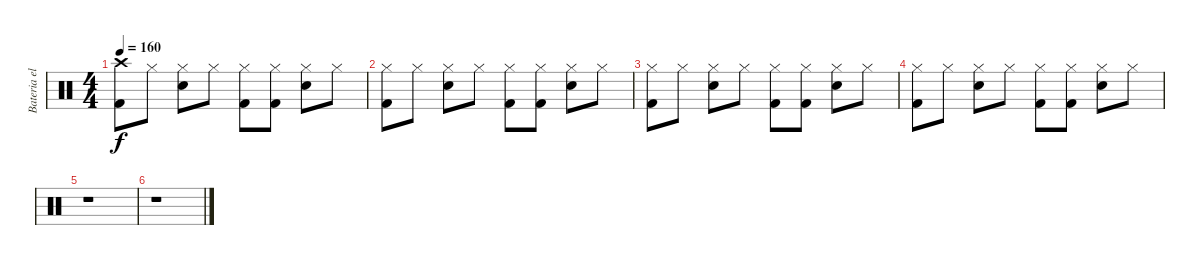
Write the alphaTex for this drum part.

\track ("Bateria electrica" "Bateria el") {instrument percussion}
\staff {score}
\articulation defaults
\ts (4 4)
\tempo 160
\clef neutral
\ks c
("Crash high (hit)" "Kick (hit) 2").8{dy f} "Hi-Hat (closed)".8 ("Hi-Hat (closed)" "Snare (hit) 2").8 "Hi-Hat (closed)".8 ("Hi-Hat (closed)" "Kick (hit) 2").8 ("Hi-Hat (closed)" "Kick (hit) 2").8 ("Hi-Hat (closed)" "Snare (hit) 2").8 "Hi-Hat (closed)".8 |
("Hi-Hat (closed)" "Kick (hit) 2").8 "Hi-Hat (closed)".8 ("Hi-Hat (closed)" "Snare (hit) 2").8 "Hi-Hat (closed)".8 ("Hi-Hat (closed)" "Kick (hit) 2").8 ("Hi-Hat (closed)" "Kick (hit) 2").8 ("Hi-Hat (closed)" "Snare (hit) 2").8 "Hi-Hat (closed)".8 |
("Hi-Hat (closed)" "Kick (hit) 2").8{volume 0} "Hi-Hat (closed)".8 ("Hi-Hat (closed)" "Snare (hit) 2").8 "Hi-Hat (closed)".8 ("Hi-Hat (closed)" "Kick (hit) 2").8 ("Hi-Hat (closed)" "Kick (hit) 2").8 ("Hi-Hat (closed)" "Snare (hit) 2").8 "Hi-Hat (closed)".8 |
("Hi-Hat (closed)" "Kick (hit) 2").8 "Hi-Hat (closed)".8 ("Hi-Hat (closed)" "Snare (hit) 2").8 "Hi-Hat (closed)".8 ("Hi-Hat (closed)" "Kick (hit) 2").8 ("Hi-Hat (closed)" "Kick (hit) 2").8 ("Hi-Hat (closed)" "Snare (hit) 2").8 "Hi-Hat (closed)".8 |
r.1 |
r.1
